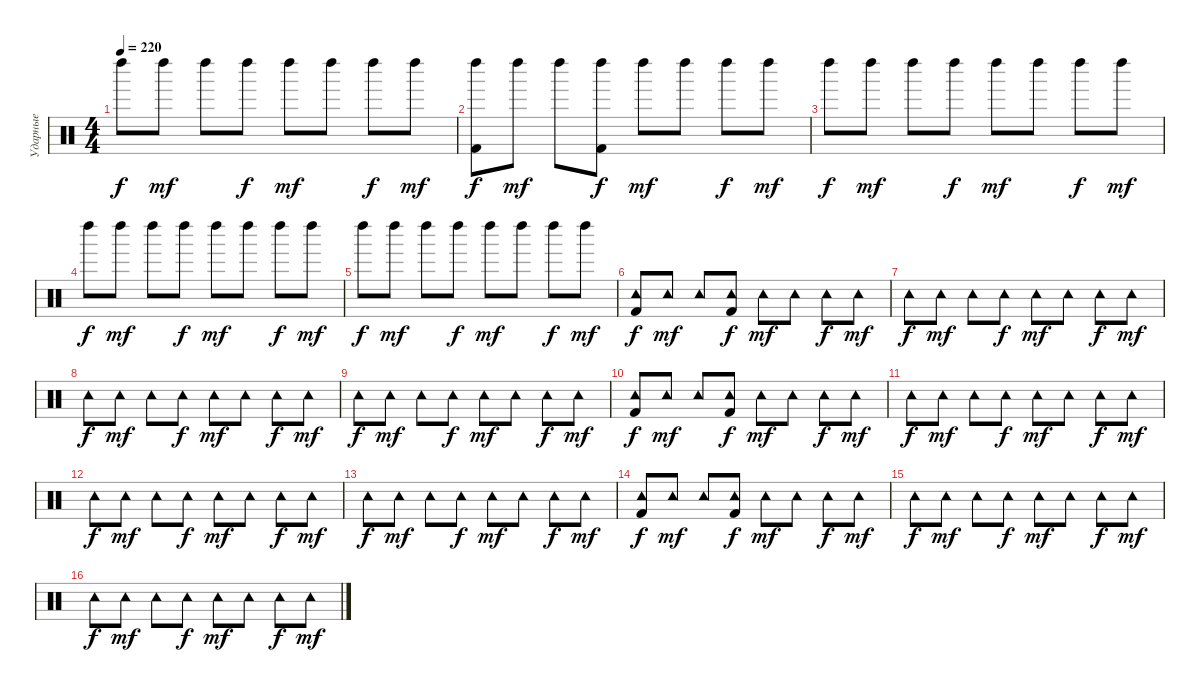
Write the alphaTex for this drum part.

\track ("Ударные" "Ударные") {instrument percussion}
\staff {score}
\articulation defaults
\ts (4 4)
\tempo 220
\clef neutral
\ks c "Left Maraca (hit)".8{dy f} "Left Maraca (hit)".8{dy mf} "Left Maraca (hit)".8 "Left Maraca (hit)".8{dy f} "Left Maraca (hit)".8{dy mf} "Left Maraca (hit)".8 "Left Maraca (hit)".8{dy f} "Left Maraca (hit)".8{dy mf}
|
("Kick (hit) 2" "Left Maraca (hit)").8{dy f} "Left Maraca (hit)".8{dy mf} "Left Maraca (hit)".8 ("Kick (hit) 2" "Left Maraca (hit)").8{dy f} "Left Maraca (hit)".8{dy mf} "Left Maraca (hit)".8 "Left Maraca (hit)".8{dy f} "Left Maraca (hit)".8{dy mf} |
"Left Maraca (hit)".8{dy f} "Left Maraca (hit)".8{dy mf} "Left Maraca (hit)".8 "Left Maraca (hit)".8{dy f} "Left Maraca (hit)".8{dy mf} "Left Maraca (hit)".8 "Left Maraca (hit)".8{dy f} "Left Maraca (hit)".8{dy mf} |
"Left Maraca (hit)".8{dy f} "Left Maraca (hit)".8{dy mf} "Left Maraca (hit)".8 "Left Maraca (hit)".8{dy f} "Left Maraca (hit)".8{dy mf} "Left Maraca (hit)".8 "Left Maraca (hit)".8{dy f} "Left Maraca (hit)".8{dy mf} |
"Left Maraca (hit)".8{dy f} "Left Maraca (hit)".8{dy mf} "Left Maraca (hit)".8 "Left Maraca (hit)".8{dy f} "Left Maraca (hit)".8{dy mf} "Left Maraca (hit)".8 "Left Maraca (hit)".8{dy f} "Left Maraca (hit)".8{dy mf} |
("Tambourine (hit)" "Kick (hit) 2").8{dy f} "Tambourine (hit)".8{dy mf} "Tambourine (hit)".8 ("Tambourine (hit)" "Kick (hit) 2").8{dy f} "Tambourine (hit)".8{dy mf} "Tambourine (hit)".8 "Tambourine (hit)".8{dy f} "Tambourine (hit)".8{dy mf} |
"Tambourine (hit)".8{dy f} "Tambourine (hit)".8{dy mf} "Tambourine (hit)".8 "Tambourine (hit)".8{dy f} "Tambourine (hit)".8{dy mf} "Tambourine (hit)".8 "Tambourine (hit)".8{dy f} "Tambourine (hit)".8{dy mf} |
"Tambourine (hit)".8{dy f} "Tambourine (hit)".8{dy mf} "Tambourine (hit)".8 "Tambourine (hit)".8{dy f} "Tambourine (hit)".8{dy mf} "Tambourine (hit)".8 "Tambourine (hit)".8{dy f} "Tambourine (hit)".8{dy mf} |
"Tambourine (hit)".8{dy f} "Tambourine (hit)".8{dy mf} "Tambourine (hit)".8 "Tambourine (hit)".8{dy f} "Tambourine (hit)".8{dy mf} "Tambourine (hit)".8 "Tambourine (hit)".8{dy f} "Tambourine (hit)".8{dy mf} |
("Kick (hit) 2" "Tambourine (hit)").8{dy f} "Tambourine (hit)".8{dy mf} "Tambourine (hit)".8 ("Kick (hit) 2" "Tambourine (hit)").8{dy f} "Tambourine (hit)".8{dy mf} "Tambourine (hit)".8 "Tambourine (hit)".8{dy f} "Tambourine (hit)".8{dy mf} |
"Tambourine (hit)".8{dy f} "Tambourine (hit)".8{dy mf} "Tambourine (hit)".8 "Tambourine (hit)".8{dy f} "Tambourine (hit)".8{dy mf} "Tambourine (hit)".8 "Tambourine (hit)".8{dy f} "Tambourine (hit)".8{dy mf} |
"Tambourine (hit)".8{dy f} "Tambourine (hit)".8{dy mf} "Tambourine (hit)".8 "Tambourine (hit)".8{dy f} "Tambourine (hit)".8{dy mf} "Tambourine (hit)".8 "Tambourine (hit)".8{dy f} "Tambourine (hit)".8{dy mf} |
"Tambourine (hit)".8{dy f} "Tambourine (hit)".8{dy mf} "Tambourine (hit)".8 "Tambourine (hit)".8{dy f} "Tambourine (hit)".8{dy mf} "Tambourine (hit)".8 "Tambourine (hit)".8{dy f} "Tambourine (hit)".8{dy mf} |
("Tambourine (hit)" "Kick (hit) 2").8{dy f} "Tambourine (hit)".8{dy mf} "Tambourine (hit)".8 ("Tambourine (hit)" "Kick (hit) 2").8{dy f} "Tambourine (hit)".8{dy mf} "Tambourine (hit)".8 "Tambourine (hit)".8{dy f} "Tambourine (hit)".8{dy mf} |
"Tambourine (hit)".8{dy f} "Tambourine (hit)".8{dy mf} "Tambourine (hit)".8 "Tambourine (hit)".8{dy f} "Tambourine (hit)".8{dy mf} "Tambourine (hit)".8 "Tambourine (hit)".8{dy f} "Tambourine (hit)".8{dy mf} |
"Tambourine (hit)".8{dy f} "Tambourine (hit)".8{dy mf} "Tambourine (hit)".8 "Tambourine (hit)".8{dy f} "Tambourine (hit)".8{dy mf} "Tambourine (hit)".8 "Tambourine (hit)".8{dy f} "Tambourine (hit)".8{dy mf}
